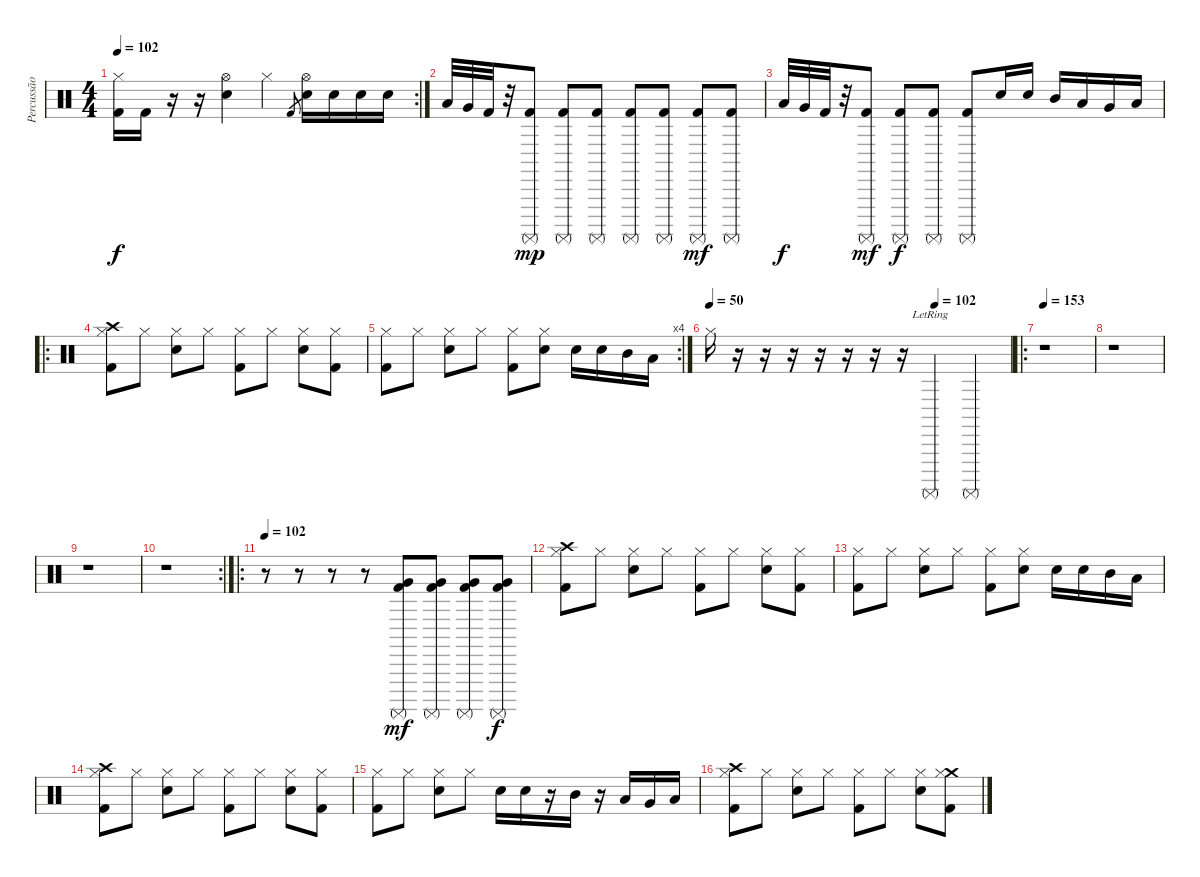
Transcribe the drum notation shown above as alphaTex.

\track ("Percussão" "Percussão") {instrument percussion}
\staff {score}
\articulation defaults
\rc 2
\ts (4 4)
\tempo 102
\clef neutral
\ks c
("Hi-Hat (closed)" "Kick (hit) 2").16{dy f} "Kick (hit) 2".16 r.16 r.16 ("Hi-Hat (open)" "Snare (hit) 2").4 "Hi-Hat (closed)".4 "Kick (hit) 2".8{gr} ("Hi-Hat (open)" "Snare (hit) 2").16 "Snare (hit) 2".16 "Snare (hit) 2".16 "Snare (hit) 2".16 |
"Low Tom (hit)".32 "Very Low Tom (hit)".32 "Kick (hit) 2".32 r.32 ("Surdo (mute)" "Kick (hit) 2").8{dy mp} ("Surdo (mute)" "Kick (hit) 2").8 ("Surdo (mute)" "Kick (hit) 2").8 ("Surdo (mute)" "Kick (hit) 2").8 ("Surdo (mute)" "Kick (hit) 2").8 ("Surdo (mute)" "Kick (hit) 2").8{dy mf} ("Surdo (mute)" "Kick (hit) 2").8 |
"Low Tom (hit)".32{dy f} "Very Low Tom (hit)".32 "Kick (hit) 2".32 r.32 ("Surdo (mute)" "Kick (hit) 2").8{dy mf} ("Surdo (mute)" "Kick (hit) 2").8{dy f} ("Surdo (mute)" "Kick (hit) 2").8 ("Surdo (mute)" "Kick (hit) 2").8 "Snare (hit) 2".16 "Snare (hit) 2".16 "Mid Tom (hit)".16 "Low Tom (hit)".16 "Very Low Tom (hit)".16 "Low Floor Tom (hit)".16 |
\ro
("Crash high (hit)" "Hi-Hat (closed)" "Kick (hit) 2").8 "Hi-Hat (closed)".8 ("Hi-Hat (closed)" "Snare (hit) 2").8 "Hi-Hat (closed)".8 ("Hi-Hat (closed)" "Kick (hit) 2").8 "Hi-Hat (closed)".8 ("Hi-Hat (closed)" "Snare (hit) 2").8 ("Hi-Hat (closed)" "Kick (hit) 2").8 |
\rc 4
("Hi-Hat (closed)" "Kick (hit) 2").8 "Hi-Hat (closed)".8 ("Hi-Hat (closed)" "Snare (hit) 2").8 "Hi-Hat (closed)".8 ("Hi-Hat (closed)" "Kick (hit) 2").8 ("Hi-Hat (closed)" "Snare (hit) 2").8 "Snare (hit) 2".16 "Snare (hit) 2".16 "Mid Tom (hit)".16 "Low Tom (hit)".16 |
\tempo (102 0.75)
\tempo (50)
"Hi-Hat (closed)".16 r.16 r.16 r.16 r.16 r.16 r.16 r.16 "Surdo (mute)"{lr}.4 "Surdo (mute)".4 |
\ro
\tempo 153
r.1 |
r.1 |
r.1 |
\rc 2
r.1 |
\ro
\tempo 102
r.8 r.8 r.8 r.8 ("Surdo (mute)" "Kick (hit) 2" "Very Low Tom (hit)").8{dy mf} ("Surdo (mute)" "Kick (hit) 2" "Very Low Tom (hit)").8 ("Surdo (mute)" "Kick (hit) 2" "Very Low Tom (hit)").8 ("Surdo (mute)" "Kick (hit) 2" "Very Low Tom (hit)").8{dy f} |
("Crash high (hit)" "Hi-Hat (closed)" "Kick (hit) 2").8 "Hi-Hat (closed)".8 ("Hi-Hat (closed)" "Snare (hit) 2").8 "Hi-Hat (closed)".8 ("Hi-Hat (closed)" "Kick (hit) 2").8 "Hi-Hat (closed)".8 ("Hi-Hat (closed)" "Snare (hit) 2").8 ("Hi-Hat (closed)" "Kick (hit) 2").8 |
("Hi-Hat (closed)" "Kick (hit) 2").8 "Hi-Hat (closed)".8 ("Hi-Hat (closed)" "Snare (hit) 2").8 "Hi-Hat (closed)".8 ("Hi-Hat (closed)" "Kick (hit) 2").8 ("Hi-Hat (closed)" "Snare (hit) 2").8 "Snare (hit) 2".16 "Snare (hit) 2".16 "Mid Tom (hit)".16 "Low Tom (hit)".16 |
("Crash high (hit)" "Hi-Hat (closed)" "Kick (hit) 2").8 "Hi-Hat (closed)".8 ("Hi-Hat (closed)" "Snare (hit) 2").8 "Hi-Hat (closed)".8 ("Hi-Hat (closed)" "Kick (hit) 2").8 "Hi-Hat (closed)".8 ("Hi-Hat (closed)" "Snare (hit) 2").8 ("Hi-Hat (closed)" "Kick (hit) 2").8 |
("Hi-Hat (closed)" "Kick (hit) 2").8 "Hi-Hat (closed)".8 ("Hi-Hat (closed)" "Snare (hit) 2").8 "Hi-Hat (closed)".8 "Snare (hit) 2".16 "Snare (hit) 2".16 r.16 "Mid Tom (hit)".16 r.16 "Low Tom (hit)".16 "Very Low Tom (hit)".16 "Low Floor Tom (hit)".16 |
("Crash high (hit)" "Hi-Hat (closed)" "Kick (hit) 2").8 "Hi-Hat (closed)".8 ("Hi-Hat (closed)" "Snare (hit) 2").8 "Hi-Hat (closed)".8 ("Hi-Hat (closed)" "Kick (hit) 2").8 "Hi-Hat (closed)".8 ("Hi-Hat (closed)" "Snare (hit) 2").8 ("Crash medium (hit)" "Hi-Hat (closed)" "Kick (hit) 2").8
